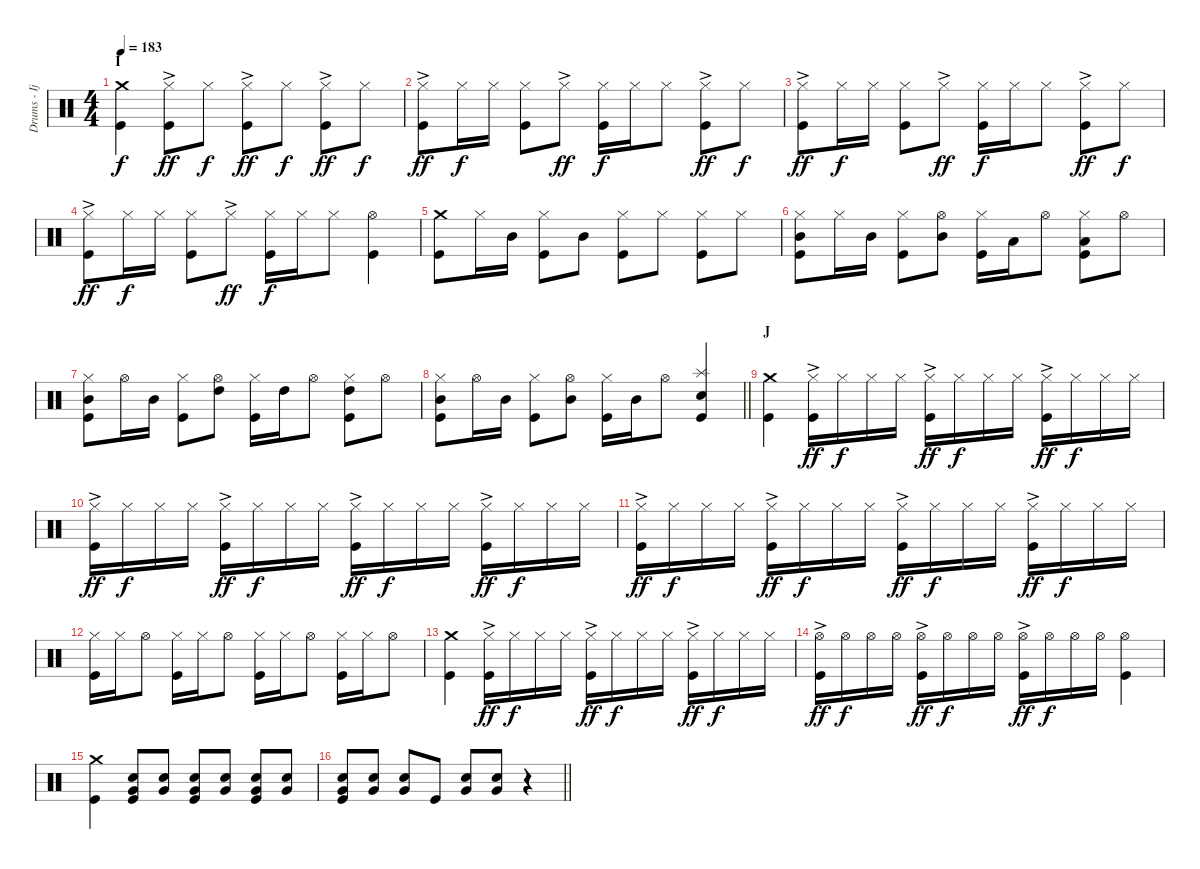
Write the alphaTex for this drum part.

\track ("Drums - Ijichi" "Drums - Ij") {instrument percussion}
\staff {score}
\articulation defaults
\ts (4 4)
\section ("" "I")
\tempo 183
\clef neutral
\ks c
("Crash medium (hit)" "Kick (hit)").4{dy f} ("Hi-Hat (closed)"{ac} "Kick (hit)").8{dy ff} "Hi-Hat (closed)".8{dy f} ("Hi-Hat (closed)"{ac} "Kick (hit)").8{dy ff} "Hi-Hat (closed)".8{dy f} ("Hi-Hat (closed)"{ac} "Kick (hit)").8{dy ff} "Hi-Hat (closed)".8{dy f} |
("Hi-Hat (closed)"{ac} "Kick (hit)").8{dy ff} "Hi-Hat (closed)".16{dy f} "Hi-Hat (closed)".16 ("Hi-Hat (closed)" "Kick (hit)").8 "Hi-Hat (closed)"{ac}.8{dy ff} ("Hi-Hat (closed)" "Kick (hit)").16{dy f} "Hi-Hat (closed)".16 "Hi-Hat (closed)".8 ("Hi-Hat (closed)"{ac} "Kick (hit)").8{dy ff} "Hi-Hat (closed)".8{dy f} |
("Hi-Hat (closed)"{ac} "Kick (hit)").8{dy ff} "Hi-Hat (closed)".16{dy f} "Hi-Hat (closed)".16 ("Hi-Hat (closed)" "Kick (hit)").8 "Hi-Hat (closed)"{ac}.8{dy ff} ("Hi-Hat (closed)" "Kick (hit)").16{dy f} "Hi-Hat (closed)".16 "Hi-Hat (closed)".8 ("Hi-Hat (closed)"{ac} "Kick (hit)").8{dy ff} "Hi-Hat (closed)".8{dy f} |
("Hi-Hat (closed)"{ac} "Kick (hit)").8{dy ff} "Hi-Hat (closed)".16{dy f} "Hi-Hat (closed)".16 ("Hi-Hat (closed)" "Kick (hit)").8 "Hi-Hat (closed)"{ac}.8{dy ff} ("Hi-Hat (closed)" "Kick (hit)").16{dy f} "Hi-Hat (closed)".16 "Hi-Hat (closed)".8 ("Hi-Hat (open)" "Kick (hit)").4 |
("Crash medium (hit)" "Kick (hit)").8 "Hi-Hat (closed)".16 "Mid Tom (hit)".16 ("Hi-Hat (closed)" "Kick (hit)").8 "Mid Tom (hit)".8 ("Hi-Hat (closed)" "Kick (hit)").8 "Hi-Hat (closed)".8 ("Hi-Hat (closed)" "Kick (hit)").8 "Hi-Hat (closed)".8 |
("Hi-Hat (closed)" "Mid Tom (hit)" "Kick (hit)").8 "Hi-Hat (closed)".16 "Mid Tom (hit)".16 ("Hi-Hat (closed)" "Kick (hit)").8 ("Hi-Hat (open)" "Mid Tom (hit)").8 ("Hi-Hat (closed)" "Kick (hit)").16 "Low Tom (hit)".16 "Hi-Hat (open)".8 ("Hi-Hat (closed)" "Low Tom (hit)" "Kick (hit)").8 "Hi-Hat (open)".8 |
("Hi-Hat (closed)" "Mid Tom (hit)" "Kick (hit)").8 "Hi-Hat (open)".16 "Mid Tom (hit)".16 ("Hi-Hat (closed)" "Kick (hit)").8 ("Hi-Hat (open)" "High Tom (hit)").8 ("Hi-Hat (closed)" "Kick (hit)").16 "High Tom (hit)".16 "Hi-Hat (open)".8 ("Hi-Hat (closed)" "High Tom (hit)" "Kick (hit)").8 "Hi-Hat (open)".8 |
\barLineRight lightlight
("Hi-Hat (closed)" "Mid Tom (hit)" "Kick (hit)").8 "Hi-Hat (open)".16 "Mid Tom (hit)".16 ("Hi-Hat (closed)" "Kick (hit)").8 ("Hi-Hat (open)" "Mid Tom (hit)").8 ("Hi-Hat (closed)" "Kick (hit)").16 "Mid Tom (hit)".16 "Hi-Hat (open)".8 ("Splash (hit)" "Electric Snare (hit)" "Kick (hit)").4 |
\section ("" "J")
("Crash medium (hit)" "Kick (hit)").4 ("Hi-Hat (closed)"{ac} "Kick (hit)").16{dy ff} "Hi-Hat (closed)".16{dy f} "Hi-Hat (closed)".16 "Hi-Hat (closed)".16 ("Hi-Hat (closed)"{ac} "Kick (hit)").16{dy ff} "Hi-Hat (closed)".16{dy f} "Hi-Hat (closed)".16 "Hi-Hat (closed)".16 ("Hi-Hat (closed)"{ac} "Kick (hit)").16{dy ff} "Hi-Hat (closed)".16{dy f} "Hi-Hat (closed)".16 "Hi-Hat (closed)".16 |
("Hi-Hat (closed)"{ac} "Kick (hit)").16{dy ff} "Hi-Hat (closed)".16{dy f} "Hi-Hat (closed)".16 "Hi-Hat (closed)".16 ("Hi-Hat (closed)"{ac} "Kick (hit)").16{dy ff} "Hi-Hat (closed)".16{dy f} "Hi-Hat (closed)".16 "Hi-Hat (closed)".16 ("Hi-Hat (closed)"{ac} "Kick (hit)").16{dy ff} "Hi-Hat (closed)".16{dy f} "Hi-Hat (closed)".16 "Hi-Hat (closed)".16 ("Hi-Hat (closed)"{ac} "Kick (hit)").16{dy ff} "Hi-Hat (closed)".16{dy f} "Hi-Hat (closed)".16 "Hi-Hat (closed)".16 |
("Hi-Hat (closed)"{ac} "Kick (hit)").16{dy ff} "Hi-Hat (closed)".16{dy f} "Hi-Hat (closed)".16 "Hi-Hat (closed)".16 ("Hi-Hat (closed)"{ac} "Kick (hit)").16{dy ff} "Hi-Hat (closed)".16{dy f} "Hi-Hat (closed)".16 "Hi-Hat (closed)".16 ("Hi-Hat (closed)"{ac} "Kick (hit)").16{dy ff} "Hi-Hat (closed)".16{dy f} "Hi-Hat (closed)".16 "Hi-Hat (closed)".16 ("Hi-Hat (closed)"{ac} "Kick (hit)").16{dy ff} "Hi-Hat (closed)".16{dy f} "Hi-Hat (closed)".16 "Hi-Hat (closed)".16 |
("Hi-Hat (closed)" "Kick (hit)").16 "Hi-Hat (closed)".16 "Hi-Hat (open)".8 ("Hi-Hat (closed)" "Kick (hit)").16 "Hi-Hat (closed)".16 "Hi-Hat (open)".8 ("Hi-Hat (closed)" "Kick (hit)").16 "Hi-Hat (closed)".16 "Hi-Hat (open)".8 ("Hi-Hat (closed)" "Kick (hit)").16 "Hi-Hat (closed)".16 "Hi-Hat (open)".8 |
("Crash medium (hit)" "Kick (hit)").4 ("Hi-Hat (closed)"{ac} "Kick (hit)").16{dy ff} "Hi-Hat (closed)".16{dy f} "Hi-Hat (closed)".16 "Hi-Hat (closed)".16 ("Hi-Hat (closed)"{ac} "Kick (hit)").16{dy ff} "Hi-Hat (closed)".16{dy f} "Hi-Hat (closed)".16 "Hi-Hat (closed)".16 ("Hi-Hat (closed)"{ac} "Kick (hit)").16{dy ff} "Hi-Hat (closed)".16{dy f} "Hi-Hat (closed)".16 "Hi-Hat (closed)".16 |
("Hi-Hat (open)"{ac} "Kick (hit)").16{dy ff} "Hi-Hat (open)".16{dy f} "Hi-Hat (open)".16 "Hi-Hat (open)".16 ("Hi-Hat (open)"{ac} "Kick (hit)").16{dy ff} "Hi-Hat (open)".16{dy f} "Hi-Hat (open)".16 "Hi-Hat (open)".16 ("Hi-Hat (open)"{ac} "Kick (hit)").16{dy ff} "Hi-Hat (open)".16{dy f} "Hi-Hat (open)".16 "Hi-Hat (open)".16 ("Hi-Hat (open)" "Kick (hit)").4 |
("Crash medium (hit)" "Kick (hit)").4 ("Electric Snare (hit)" "Very Low Tom (hit)" "Kick (hit)").8 ("Electric Snare (hit)" "Very Low Tom (hit)").8 ("Electric Snare (hit)" "Very Low Tom (hit)" "Kick (hit)").8 ("Electric Snare (hit)" "Very Low Tom (hit)").8 ("Electric Snare (hit)" "Very Low Tom (hit)" "Kick (hit)").8 ("Electric Snare (hit)" "Very Low Tom (hit)").8 |
\barLineRight lightlight
("Electric Snare (hit)" "Very Low Tom (hit)" "Kick (hit)").8 ("Electric Snare (hit)" "Very Low Tom (hit)").8 ("Electric Snare (hit)" "Very Low Tom (hit)").8 "Kick (hit)".8 ("Electric Snare (hit)" "Very Low Tom (hit)").8 ("Electric Snare (hit)" "Very Low Tom (hit)").8 r.4
